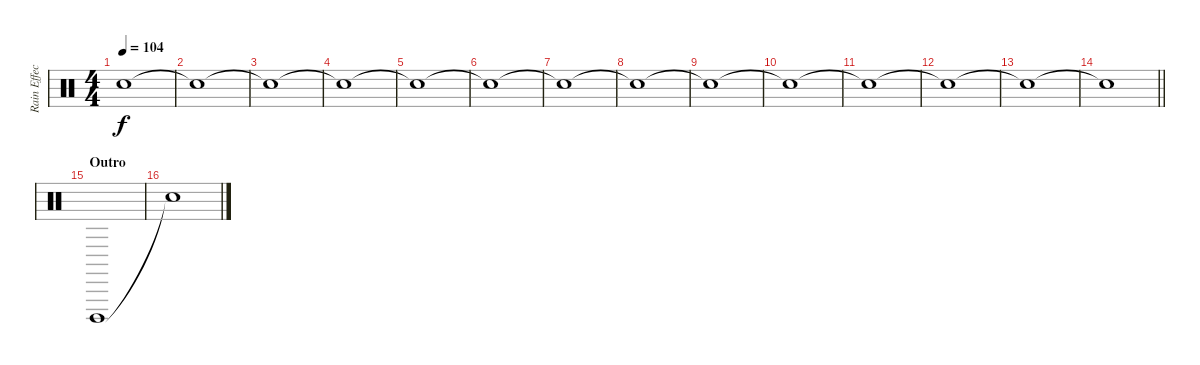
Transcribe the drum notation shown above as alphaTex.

\track ("Rain Effect" "Rain Effec") {instrument percussion}
\staff {score}
\articulation defaults
\ts (4 4)
\tempo 104
\clef neutral
\ks c "Snare (hit)"{t}.1{dy f}
|
"Snare (hit)"{t}.1 |
"Snare (hit)"{t}.1 |
"Snare (hit)"{t}.1 |
"Snare (hit)"{t}.1 |
"Snare (hit)"{t}.1 |
"Snare (hit)"{t}.1 |
"Snare (hit)"{t}.1 |
"Snare (hit)"{t}.1 |
"Snare (hit)"{t}.1 |
"Snare (hit)"{t}.1 |
"Snare (hit)"{t}.1 |
"Snare (hit)"{t}.1 |
\barLineRight lightlight "Snare (hit)"{t}.1
|
\section ("" "Outro")
"Cuica (open)".1 |
"Snare (hit)"{t}.1
